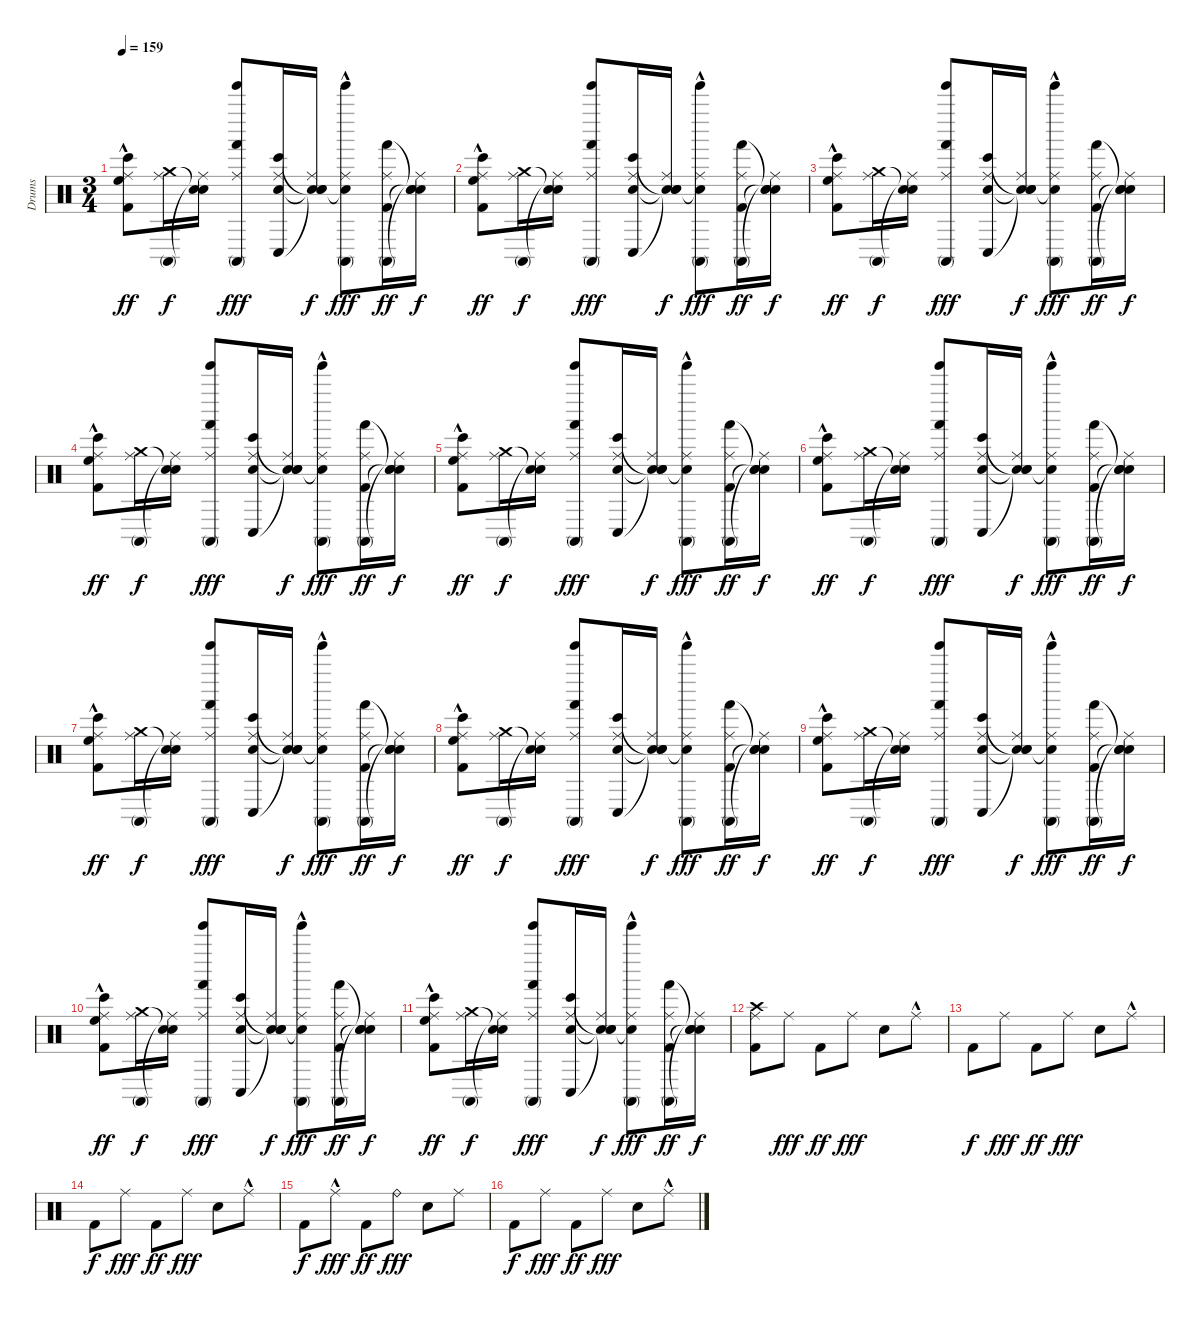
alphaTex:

\track ("Drums" "Drums") {instrument percussion}
\staff {score}
\articulation defaults
\ts (3 4)
\tempo 159
\clef neutral
\ks c
("Kick (hit) 2" "Bongo High (hit)"{hac} "Ride (middle)" "High Floor Tom (hit)").8{dy ff} ("Conga high (mute)" "Ride (middle)" "Crash medium (hit)").16{dy f} ("Snare (hit)"{t} "Ride (middle)" "Snare (hit)"{t}).16 ("Tinkle Bell (hit)" "Hand (hit)" "Ride (middle)" "Conga high (mute)").8{dy fff} ("Snare (hit) 2" "Bongo High (hit)" "Ride (middle)" "Conga low (hit)").16 ("Snare (hit)"{t} "Snare (hit)"{t} "Ride (middle)" "Snare (hit)"{t}).16{dy f} ("Tinkle Bell (hit)" "Conga high (mute)"{hac} "Ride (middle)" "Snare (hit)"{t}).8{dy fff} ("Kick (hit) 2" "Hand (hit)" "Ride (middle)" "Conga high (mute)").16{dy ff} ("Snare (hit)"{t} "Snare (hit)"{t} "Ride (middle)" "Snare (hit)"{t}).16{dy f} |
("Kick (hit) 2" "Bongo High (hit)"{hac} "Ride (middle)" "High Floor Tom (hit)").8{dy ff} ("Conga high (mute)" "Ride (middle)" "Crash medium (hit)").16{dy f} ("Snare (hit)"{t} "Ride (middle)" "Snare (hit)"{t}).16 ("Tinkle Bell (hit)" "Hand (hit)" "Ride (middle)" "Conga high (mute)").8{dy fff} ("Snare (hit) 2" "Bongo High (hit)" "Ride (middle)" "Conga low (hit)").16 ("Snare (hit)"{t} "Snare (hit)"{t} "Ride (middle)" "Snare (hit)"{t}).16{dy f} ("Tinkle Bell (hit)" "Conga high (mute)"{hac} "Ride (middle)" "Snare (hit)"{t}).8{dy fff} ("Kick (hit) 2" "Hand (hit)" "Ride (middle)" "Conga high (mute)").16{dy ff} ("Snare (hit)"{t} "Snare (hit)"{t} "Ride (middle)" "Snare (hit)"{t}).16{dy f} |
("Kick (hit) 2" "Bongo High (hit)"{hac} "Ride (middle)" "High Floor Tom (hit)").8{dy ff} ("Conga high (mute)" "Ride (middle)" "Crash medium (hit)").16{dy f} ("Snare (hit)"{t} "Ride (middle)" "Snare (hit)"{t}).16 ("Tinkle Bell (hit)" "Hand (hit)" "Ride (middle)" "Conga high (mute)").8{dy fff} ("Snare (hit) 2" "Bongo High (hit)" "Ride (middle)" "Conga low (hit)").16 ("Snare (hit)"{t} "Snare (hit)"{t} "Ride (middle)" "Snare (hit)"{t}).16{dy f} ("Tinkle Bell (hit)" "Conga high (mute)"{hac} "Ride (middle)" "Snare (hit)"{t}).8{dy fff} ("Kick (hit) 2" "Hand (hit)" "Ride (middle)" "Conga high (mute)").16{dy ff} ("Snare (hit)"{t} "Snare (hit)"{t} "Ride (middle)" "Snare (hit)"{t}).16{dy f} |
("Kick (hit) 2" "Bongo High (hit)"{hac} "Ride (middle)" "High Floor Tom (hit)").8{dy ff} ("Conga high (mute)" "Ride (middle)" "Crash medium (hit)").16{dy f} ("Snare (hit)"{t} "Ride (middle)" "Snare (hit)"{t}).16 ("Tinkle Bell (hit)" "Hand (hit)" "Ride (middle)" "Conga high (mute)").8{dy fff} ("Snare (hit) 2" "Bongo High (hit)" "Ride (middle)" "Conga low (hit)").16 ("Snare (hit)"{t} "Snare (hit)"{t} "Ride (middle)" "Snare (hit)"{t}).16{dy f} ("Tinkle Bell (hit)" "Conga high (mute)"{hac} "Ride (middle)" "Snare (hit)"{t}).8{dy fff} ("Kick (hit) 2" "Hand (hit)" "Ride (middle)" "Conga high (mute)").16{dy ff} ("Snare (hit)"{t} "Snare (hit)"{t} "Ride (middle)" "Snare (hit)"{t}).16{dy f} |
("Kick (hit) 2" "Bongo High (hit)"{hac} "Ride (middle)" "High Floor Tom (hit)").8{dy ff} ("Conga high (mute)" "Ride (middle)" "Crash medium (hit)").16{dy f} ("Snare (hit)"{t} "Ride (middle)" "Snare (hit)"{t}).16 ("Tinkle Bell (hit)" "Hand (hit)" "Ride (middle)" "Conga high (mute)").8{dy fff} ("Snare (hit) 2" "Bongo High (hit)" "Ride (middle)" "Conga low (hit)").16 ("Snare (hit)"{t} "Snare (hit)"{t} "Ride (middle)" "Snare (hit)"{t}).16{dy f} ("Tinkle Bell (hit)" "Conga high (mute)"{hac} "Ride (middle)" "Snare (hit)"{t}).8{dy fff} ("Kick (hit) 2" "Hand (hit)" "Ride (middle)" "Conga high (mute)").16{dy ff} ("Snare (hit)"{t} "Snare (hit)"{t} "Ride (middle)" "Snare (hit)"{t}).16{dy f} |
("Kick (hit) 2" "Bongo High (hit)"{hac} "Ride (middle)" "High Floor Tom (hit)").8{dy ff} ("Conga high (mute)" "Ride (middle)" "Crash medium (hit)").16{dy f} ("Snare (hit)"{t} "Ride (middle)" "Snare (hit)"{t}).16 ("Tinkle Bell (hit)" "Hand (hit)" "Ride (middle)" "Conga high (mute)").8{dy fff} ("Snare (hit) 2" "Bongo High (hit)" "Ride (middle)" "Conga low (hit)").16 ("Snare (hit)"{t} "Snare (hit)"{t} "Ride (middle)" "Snare (hit)"{t}).16{dy f} ("Tinkle Bell (hit)" "Conga high (mute)"{hac} "Ride (middle)" "Snare (hit)"{t}).8{dy fff} ("Kick (hit) 2" "Hand (hit)" "Ride (middle)" "Conga high (mute)").16{dy ff} ("Snare (hit)"{t} "Snare (hit)"{t} "Ride (middle)" "Snare (hit)"{t}).16{dy f} |
("Kick (hit) 2" "Bongo High (hit)"{hac} "Ride (middle)" "High Floor Tom (hit)").8{dy ff} ("Conga high (mute)" "Ride (middle)" "Crash medium (hit)").16{dy f} ("Snare (hit)"{t} "Ride (middle)" "Snare (hit)"{t}).16 ("Tinkle Bell (hit)" "Hand (hit)" "Ride (middle)" "Conga high (mute)").8{dy fff} ("Snare (hit) 2" "Bongo High (hit)" "Ride (middle)" "Conga low (hit)").16 ("Snare (hit)"{t} "Snare (hit)"{t} "Ride (middle)" "Snare (hit)"{t}).16{dy f} ("Tinkle Bell (hit)" "Conga high (mute)"{hac} "Ride (middle)" "Snare (hit)"{t}).8{dy fff} ("Kick (hit) 2" "Hand (hit)" "Ride (middle)" "Conga high (mute)").16{dy ff} ("Snare (hit)"{t} "Snare (hit)"{t} "Ride (middle)" "Snare (hit)"{t}).16{dy f} |
("Kick (hit) 2" "Bongo High (hit)"{hac} "Ride (middle)" "High Floor Tom (hit)").8{dy ff} ("Conga high (mute)" "Ride (middle)" "Crash medium (hit)").16{dy f} ("Snare (hit)"{t} "Ride (middle)" "Snare (hit)"{t}).16 ("Tinkle Bell (hit)" "Hand (hit)" "Ride (middle)" "Conga high (mute)").8{dy fff} ("Snare (hit) 2" "Bongo High (hit)" "Ride (middle)" "Conga low (hit)").16 ("Snare (hit)"{t} "Snare (hit)"{t} "Ride (middle)" "Snare (hit)"{t}).16{dy f} ("Tinkle Bell (hit)" "Conga high (mute)"{hac} "Ride (middle)" "Snare (hit)"{t}).8{dy fff} ("Kick (hit) 2" "Hand (hit)" "Ride (middle)" "Conga high (mute)").16{dy ff} ("Snare (hit)"{t} "Snare (hit)"{t} "Ride (middle)" "Snare (hit)"{t}).16{dy f} |
("Kick (hit) 2" "Bongo High (hit)"{hac} "Ride (middle)" "High Floor Tom (hit)").8{dy ff} ("Conga high (mute)" "Ride (middle)" "Crash medium (hit)").16{dy f} ("Snare (hit)"{t} "Ride (middle)" "Snare (hit)"{t}).16 ("Tinkle Bell (hit)" "Hand (hit)" "Ride (middle)" "Conga high (mute)").8{dy fff} ("Snare (hit) 2" "Bongo High (hit)" "Ride (middle)" "Conga low (hit)").16 ("Snare (hit)"{t} "Snare (hit)"{t} "Ride (middle)" "Snare (hit)"{t}).16{dy f} ("Tinkle Bell (hit)" "Conga high (mute)"{hac} "Ride (middle)" "Snare (hit)"{t}).8{dy fff} ("Kick (hit) 2" "Hand (hit)" "Ride (middle)" "Conga high (mute)").16{dy ff} ("Snare (hit)"{t} "Snare (hit)"{t} "Ride (middle)" "Snare (hit)"{t}).16{dy f} |
("Kick (hit) 2" "Bongo High (hit)"{hac} "Ride (middle)" "High Floor Tom (hit)").8{dy ff} ("Conga high (mute)" "Ride (middle)" "Crash medium (hit)").16{dy f} ("Snare (hit)"{t} "Ride (middle)" "Snare (hit)"{t}).16 ("Tinkle Bell (hit)" "Hand (hit)" "Ride (middle)" "Conga high (mute)").8{dy fff} ("Snare (hit) 2" "Bongo High (hit)" "Ride (middle)" "Conga low (hit)").16 ("Snare (hit)"{t} "Snare (hit)"{t} "Ride (middle)" "Snare (hit)"{t}).16{dy f} ("Tinkle Bell (hit)" "Conga high (mute)"{hac} "Ride (middle)" "Snare (hit)"{t}).8{dy fff} ("Kick (hit) 2" "Hand (hit)" "Ride (middle)" "Conga high (mute)").16{dy ff} ("Snare (hit)"{t} "Snare (hit)"{t} "Ride (middle)" "Snare (hit)"{t}).16{dy f} |
("Kick (hit) 2" "Bongo High (hit)"{hac} "Ride (middle)" "High Floor Tom (hit)").8{dy ff} ("Conga high (mute)" "Ride (middle)" "Crash medium (hit)").16{dy f} ("Snare (hit)"{t} "Ride (middle)" "Snare (hit)"{t}).16 ("Tinkle Bell (hit)" "Hand (hit)" "Ride (middle)" "Conga high (mute)").8{dy fff} ("Snare (hit) 2" "Bongo High (hit)" "Ride (middle)" "Conga low (hit)").16 ("Snare (hit)"{t} "Snare (hit)"{t} "Ride (middle)" "Snare (hit)"{t}).16{dy f} ("Tinkle Bell (hit)" "Conga high (mute)"{hac} "Ride (middle)" "Snare (hit)"{t}).8{dy fff} ("Kick (hit) 2" "Hand (hit)" "Ride (middle)" "Conga high (mute)").16{dy ff} ("Snare (hit)"{t} "Snare (hit)"{t} "Ride (middle)" "Snare (hit)"{t}).16{dy f} |
("Kick (hit) 2" "Ride (middle)" "Crash high (hit)").8 "Ride (middle)".8{dy fff} "Kick (hit) 2".8{dy ff} "Ride (middle)".8{dy fff} "Snare (hit) 2".8 "Ride (middle)"{hac}.8 |
"Kick (hit) 2".8{dy f} "Ride (middle)".8{dy fff} "Kick (hit) 2".8{dy ff} "Ride (middle)".8{dy fff} "Snare (hit) 2".8 "Ride (middle)"{hac}.8 |
"Kick (hit) 2".8{dy f} "Ride (middle)".8{dy fff} "Kick (hit) 2".8{dy ff} "Ride (middle)".8{dy fff} "Snare (hit) 2".8 "Ride (middle)"{hac}.8 |
"Kick (hit) 2".8{dy f} "Ride (middle)"{hac}.8{dy fff} "Kick (hit) 2".8{dy ff} "Ride (bell)".8{dy fff} "Snare (hit) 2".8 "Ride (middle)".8 |
"Kick (hit) 2".8{dy f} "Ride (middle)".8{dy fff} "Kick (hit) 2".8{dy ff} "Ride (middle)".8{dy fff} "Snare (hit) 2".8 "Ride (middle)"{hac}.8
